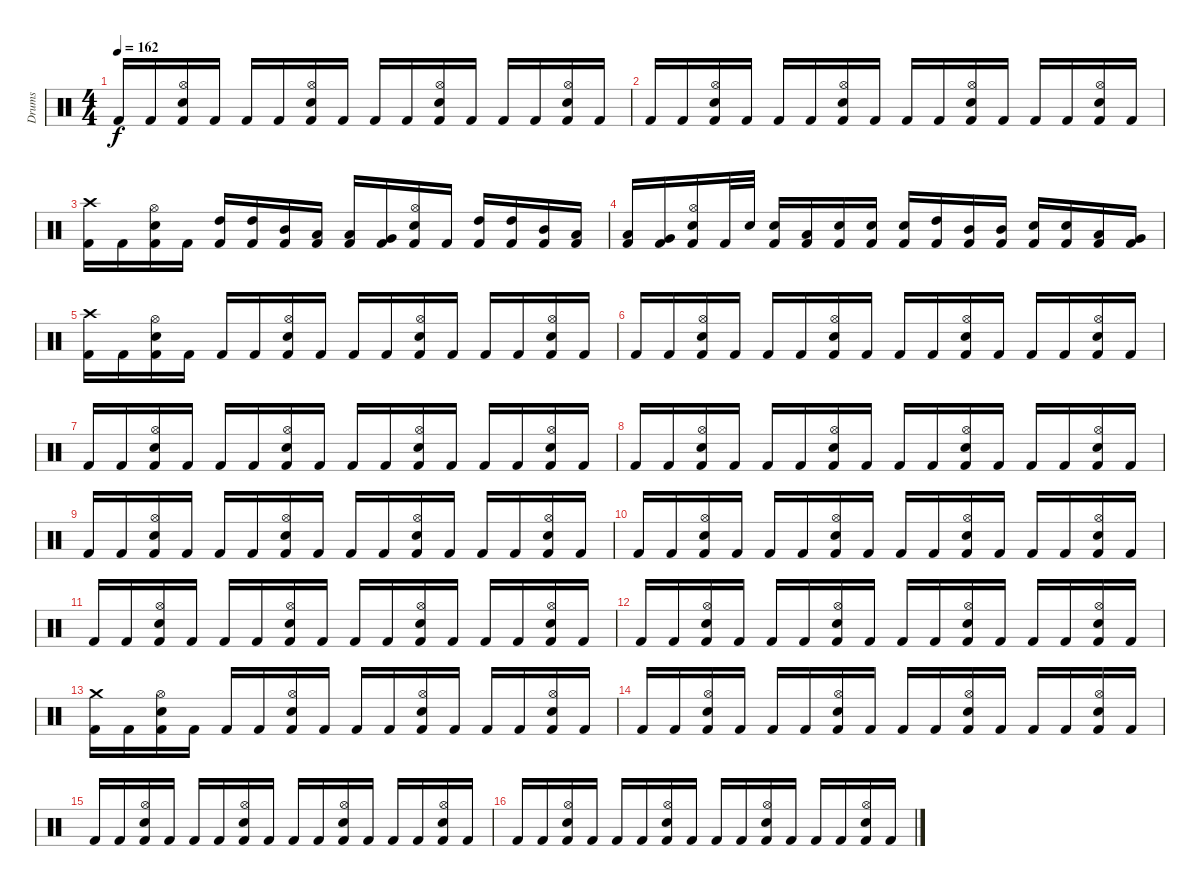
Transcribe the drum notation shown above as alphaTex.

\track ("Drums" "Drums") {instrument percussion}
\staff {score}
\articulation defaults
\ts (4 4)
\tempo 162
\clef neutral
\ks c "Kick (hit) 2".16{dy f} "Kick (hit) 2".16
("Kick (hit) 2" "Hi-Hat (open)" "Electric Snare (hit)").16 "Kick (hit) 2".16 "Kick (hit) 2".16 "Kick (hit) 2".16 ("Kick (hit) 2" "Hi-Hat (open)" "Electric Snare (hit)").16 "Kick (hit) 2".16 "Kick (hit) 2".16 "Kick (hit) 2".16 ("Hi-Hat (open)" "Electric Snare (hit)" "Kick (hit) 2").16 "Kick (hit) 2".16 "Kick (hit) 2".16 "Kick (hit) 2".16 ("Hi-Hat (open)" "Kick (hit) 2" "Electric Snare (hit)").16 "Kick (hit) 2".16 |
"Kick (hit) 2".16 "Kick (hit) 2".16 ("Kick (hit) 2" "Hi-Hat (open)" "Electric Snare (hit)").16 "Kick (hit) 2".16 "Kick (hit) 2".16 "Kick (hit) 2".16 ("Kick (hit) 2" "Hi-Hat (open)" "Electric Snare (hit)").16 "Kick (hit) 2".16 "Kick (hit) 2".16 "Kick (hit) 2".16 ("Hi-Hat (open)" "Electric Snare (hit)" "Kick (hit) 2").16 "Kick (hit) 2".16 "Kick (hit) 2".16 "Kick (hit) 2".16 ("Hi-Hat (open)" "Electric Snare (hit)" "Kick (hit) 2").16 "Kick (hit) 2".16 |
("Kick (hit) 2" "Crash high (hit)").16 "Kick (hit) 2".16 ("Hi-Hat (open)" "Electric Snare (hit)" "Kick (hit) 2").16 "Kick (hit) 2".16 ("High Tom (hit)" "Kick (hit) 2").16 ("High Tom (hit)" "Kick (hit) 2").16 ("Kick (hit) 2" "Mid Tom (hit)").16 ("Kick (hit) 2" "Low Tom (hit)").16 ("Kick (hit) 2" "Low Tom (hit)").16 ("Very Low Tom (hit)" "Kick (hit) 2").16 ("Hi-Hat (open)" "Electric Snare (hit)" "Kick (hit) 2").16 "Kick (hit) 2".16 ("High Tom (hit)" "Kick (hit) 2").16 ("High Tom (hit)" "Kick (hit) 2").16 ("Kick (hit) 2" "Mid Tom (hit)").16 ("Low Tom (hit)" "Kick (hit) 2").16 |
("Kick (hit) 2" "Low Tom (hit)").16 ("Very Low Tom (hit)" "Kick (hit) 2").16 ("Hi-Hat (open)" "Electric Snare (hit)" "Kick (hit) 2").16 "Kick (hit) 2".32 "Electric Snare (hit)".32 ("Kick (hit) 2" "Electric Snare (hit)").16 ("Low Tom (hit)" "Kick (hit) 2").16 ("Kick (hit) 2" "Electric Snare (hit)").16 ("Electric Snare (hit)" "Kick (hit) 2").16 ("Electric Snare (hit)" "Kick (hit) 2").16 ("Kick (hit) 2" "High Tom (hit)").16 ("Mid Tom (hit)" "Kick (hit) 2").16 ("Kick (hit) 2" "Mid Tom (hit)").16 ("Electric Snare (hit)" "Kick (hit) 2").16 ("Electric Snare (hit)" "Kick (hit) 2").16 ("Kick (hit) 2" "Low Tom (hit)").16 ("Very Low Tom (hit)" "Kick (hit) 2").16 |
("Crash high (hit)" "Kick (hit) 2").16 "Kick (hit) 2".16 ("Electric Snare (hit)" "Kick (hit) 2" "Hi-Hat (open)").16 "Kick (hit) 2".16 "Kick (hit) 2".16 "Kick (hit) 2".16 ("Electric Snare (hit)" "Kick (hit) 2" "Hi-Hat (open)").16 "Kick (hit) 2".16 "Kick (hit) 2".16 "Kick (hit) 2".16 ("Electric Snare (hit)" "Kick (hit) 2" "Hi-Hat (open)").16 "Kick (hit) 2".16 "Kick (hit) 2".16 "Kick (hit) 2".16 ("Hi-Hat (open)" "Electric Snare (hit)" "Kick (hit) 2").16 "Kick (hit) 2".16 |
"Kick (hit) 2".16 "Kick (hit) 2".16 ("Hi-Hat (open)" "Electric Snare (hit)" "Kick (hit) 2").16 "Kick (hit) 2".16 "Kick (hit) 2".16 "Kick (hit) 2".16 ("Electric Snare (hit)" "Kick (hit) 2" "Hi-Hat (open)").16 "Kick (hit) 2".16 "Kick (hit) 2".16 "Kick (hit) 2".16 ("Electric Snare (hit)" "Kick (hit) 2" "Hi-Hat (open)").16 "Kick (hit) 2".16 "Kick (hit) 2".16 "Kick (hit) 2".16 ("Hi-Hat (open)" "Kick (hit) 2" "Electric Snare (hit)").16 "Kick (hit) 2".16 |
"Kick (hit) 2".16 "Kick (hit) 2".16 ("Hi-Hat (open)" "Kick (hit) 2" "Electric Snare (hit)").16 "Kick (hit) 2".16 "Kick (hit) 2".16 "Kick (hit) 2".16 ("Hi-Hat (open)" "Electric Snare (hit)" "Kick (hit) 2").16 "Kick (hit) 2".16 "Kick (hit) 2".16 "Kick (hit) 2".16 ("Hi-Hat (open)" "Electric Snare (hit)" "Kick (hit) 2").16 "Kick (hit) 2".16 "Kick (hit) 2".16 "Kick (hit) 2".16 ("Electric Snare (hit)" "Hi-Hat (open)" "Kick (hit) 2").16 "Kick (hit) 2".16 |
"Kick (hit) 2".16 "Kick (hit) 2".16 ("Hi-Hat (open)" "Electric Snare (hit)" "Kick (hit) 2").16 "Kick (hit) 2".16 "Kick (hit) 2".16 "Kick (hit) 2".16 ("Hi-Hat (open)" "Electric Snare (hit)" "Kick (hit) 2").16 "Kick (hit) 2".16 "Kick (hit) 2".16 "Kick (hit) 2".16 ("Hi-Hat (open)" "Electric Snare (hit)" "Kick (hit) 2").16 "Kick (hit) 2".16 "Kick (hit) 2".16 "Kick (hit) 2".16 ("Hi-Hat (open)" "Electric Snare (hit)" "Kick (hit) 2").16 "Kick (hit) 2".16 |
"Kick (hit) 2".16 "Kick (hit) 2".16 ("Electric Snare (hit)" "Hi-Hat (open)" "Kick (hit) 2").16 "Kick (hit) 2".16 "Kick (hit) 2".16 "Kick (hit) 2".16 ("Hi-Hat (open)" "Electric Snare (hit)" "Kick (hit) 2").16 "Kick (hit) 2".16 "Kick (hit) 2".16 "Kick (hit) 2".16 ("Kick (hit) 2" "Hi-Hat (open)" "Electric Snare (hit)").16 "Kick (hit) 2".16 "Kick (hit) 2".16 "Kick (hit) 2".16 ("Hi-Hat (open)" "Electric Snare (hit)" "Kick (hit) 2").16 "Kick (hit) 2".16 |
"Kick (hit) 2".16 "Kick (hit) 2".16 ("Kick (hit) 2" "Hi-Hat (open)" "Electric Snare (hit)").16 "Kick (hit) 2".16 "Kick (hit) 2".16 "Kick (hit) 2".16 ("Hi-Hat (open)" "Electric Snare (hit)" "Kick (hit) 2").16 "Kick (hit) 2".16 "Kick (hit) 2".16 "Kick (hit) 2".16 ("Hi-Hat (open)" "Electric Snare (hit)" "Kick (hit) 2").16 "Kick (hit) 2".16 "Kick (hit) 2".16 "Kick (hit) 2".16 ("Hi-Hat (open)" "Electric Snare (hit)" "Kick (hit) 2").16 "Kick (hit) 2".16 |
"Kick (hit) 2".16 "Kick (hit) 2".16 ("Hi-Hat (open)" "Electric Snare (hit)" "Kick (hit) 2").16 "Kick (hit) 2".16 "Kick (hit) 2".16 "Kick (hit) 2".16 ("Hi-Hat (open)" "Electric Snare (hit)" "Kick (hit) 2").16 "Kick (hit) 2".16 "Kick (hit) 2".16 "Kick (hit) 2".16 ("Hi-Hat (open)" "Electric Snare (hit)" "Kick (hit) 2").16 "Kick (hit) 2".16 "Kick (hit) 2".16 "Kick (hit) 2".16 ("Electric Snare (hit)" "Hi-Hat (open)" "Kick (hit) 2").16 "Kick (hit) 2".16 |
"Kick (hit) 2".16 "Kick (hit) 2".16 ("Hi-Hat (open)" "Electric Snare (hit)" "Kick (hit) 2").16 "Kick (hit) 2".16 "Kick (hit) 2".16 "Kick (hit) 2".16 ("Electric Snare (hit)" "Kick (hit) 2" "Hi-Hat (open)").16 "Kick (hit) 2".16 "Kick (hit) 2".16 "Kick (hit) 2".16 ("Hi-Hat (open)" "Kick (hit) 2" "Electric Snare (hit)").16 "Kick (hit) 2".16 "Kick (hit) 2".16 "Kick (hit) 2".16 ("Hi-Hat (open)" "Kick (hit) 2" "Electric Snare (hit)").16 "Kick (hit) 2".16 |
("Crash medium (hit)" "Kick (hit) 2").16 "Kick (hit) 2".16 ("Hi-Hat (open)" "Kick (hit) 2" "Electric Snare (hit)").16 "Kick (hit) 2".16 "Kick (hit) 2".16 "Kick (hit) 2".16 ("Hi-Hat (open)" "Kick (hit) 2" "Electric Snare (hit)").16 "Kick (hit) 2".16 "Kick (hit) 2".16 "Kick (hit) 2".16 ("Hi-Hat (open)" "Electric Snare (hit)" "Kick (hit) 2").16 "Kick (hit) 2".16 "Kick (hit) 2".16 "Kick (hit) 2".16 ("Hi-Hat (open)" "Electric Snare (hit)" "Kick (hit) 2").16 "Kick (hit) 2".16 |
"Kick (hit) 2".16 "Kick (hit) 2".16 ("Electric Snare (hit)" "Kick (hit) 2" "Hi-Hat (open)").16 "Kick (hit) 2".16 "Kick (hit) 2".16 "Kick (hit) 2".16 ("Electric Snare (hit)" "Kick (hit) 2" "Hi-Hat (open)").16 "Kick (hit) 2".16 "Kick (hit) 2".16 "Kick (hit) 2".16 ("Hi-Hat (open)" "Electric Snare (hit)" "Kick (hit) 2").16 "Kick (hit) 2".16 "Kick (hit) 2".16 "Kick (hit) 2".16 ("Hi-Hat (open)" "Electric Snare (hit)" "Kick (hit) 2").16 "Kick (hit) 2".16 |
"Kick (hit) 2".16 "Kick (hit) 2".16 ("Electric Snare (hit)" "Kick (hit) 2" "Hi-Hat (open)").16 "Kick (hit) 2".16 "Kick (hit) 2".16 "Kick (hit) 2".16 ("Electric Snare (hit)" "Kick (hit) 2" "Hi-Hat (open)").16 "Kick (hit) 2".16 "Kick (hit) 2".16 "Kick (hit) 2".16 ("Electric Snare (hit)" "Kick (hit) 2" "Hi-Hat (open)").16 "Kick (hit) 2".16 "Kick (hit) 2".16 "Kick (hit) 2".16 ("Hi-Hat (open)" "Kick (hit) 2" "Electric Snare (hit)").16 "Kick (hit) 2".16 |
"Kick (hit) 2".16 "Kick (hit) 2".16 ("Hi-Hat (open)" "Kick (hit) 2" "Electric Snare (hit)").16 "Kick (hit) 2".16 "Kick (hit) 2".16 "Kick (hit) 2".16 ("Hi-Hat (open)" "Electric Snare (hit)" "Kick (hit) 2").16 "Kick (hit) 2".16 "Kick (hit) 2".16 "Kick (hit) 2".16 ("Hi-Hat (open)" "Electric Snare (hit)" "Kick (hit) 2").16 "Kick (hit) 2".16 "Kick (hit) 2".16 "Kick (hit) 2".16 ("Electric Snare (hit)" "Hi-Hat (open)" "Kick (hit) 2").16 "Kick (hit) 2".16
